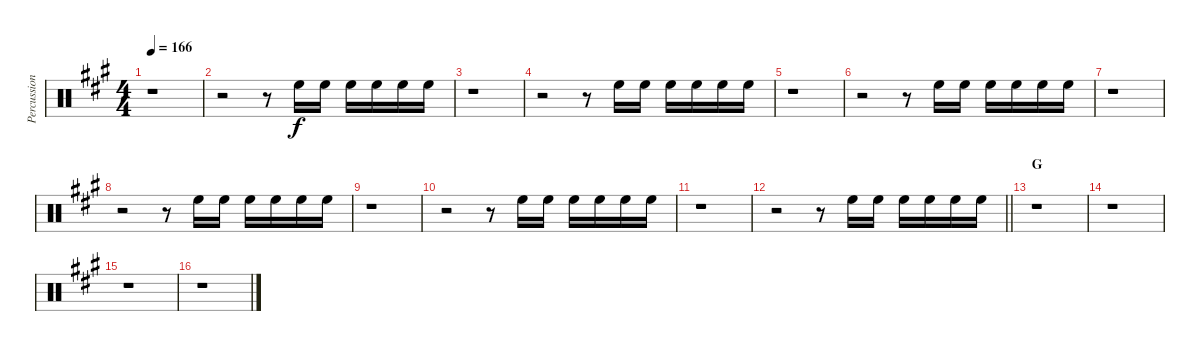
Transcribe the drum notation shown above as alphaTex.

\track ("Percussion I" "Percussion") {instrument percussion}
\staff {score}
\articulation defaults
\ts (4 4)
\tempo 166
\clef neutral
\ks a
r.1{dy f} |
r.2 r.8 "High Floor Tom (hit)".16 "High Floor Tom (hit)".16 "High Floor Tom (hit)".16 "High Floor Tom (hit)".16 "High Floor Tom (hit)".16 "High Floor Tom (hit)".16 |
r.1 |
r.2 r.8 "High Floor Tom (hit)".16 "High Floor Tom (hit)".16 "High Floor Tom (hit)".16 "High Floor Tom (hit)".16 "High Floor Tom (hit)".16 "High Floor Tom (hit)".16 |
r.1 |
r.2 r.8 "High Floor Tom (hit)".16 "High Floor Tom (hit)".16 "High Floor Tom (hit)".16 "High Floor Tom (hit)".16 "High Floor Tom (hit)".16 "High Floor Tom (hit)".16 |
r.1 |
r.2 r.8 "High Floor Tom (hit)".16 "High Floor Tom (hit)".16 "High Floor Tom (hit)".16 "High Floor Tom (hit)".16 "High Floor Tom (hit)".16 "High Floor Tom (hit)".16 |
r.1 |
r.2 r.8 "High Floor Tom (hit)".16 "High Floor Tom (hit)".16 "High Floor Tom (hit)".16 "High Floor Tom (hit)".16 "High Floor Tom (hit)".16 "High Floor Tom (hit)".16 |
r.1 |
\barLineRight lightlight
r.2 r.8 "High Floor Tom (hit)".16 "High Floor Tom (hit)".16 "High Floor Tom (hit)".16 "High Floor Tom (hit)".16 "High Floor Tom (hit)".16 "High Floor Tom (hit)".16 |
\section ("" "G")
r.1 |
r.1 |
r.1 |
r.1
